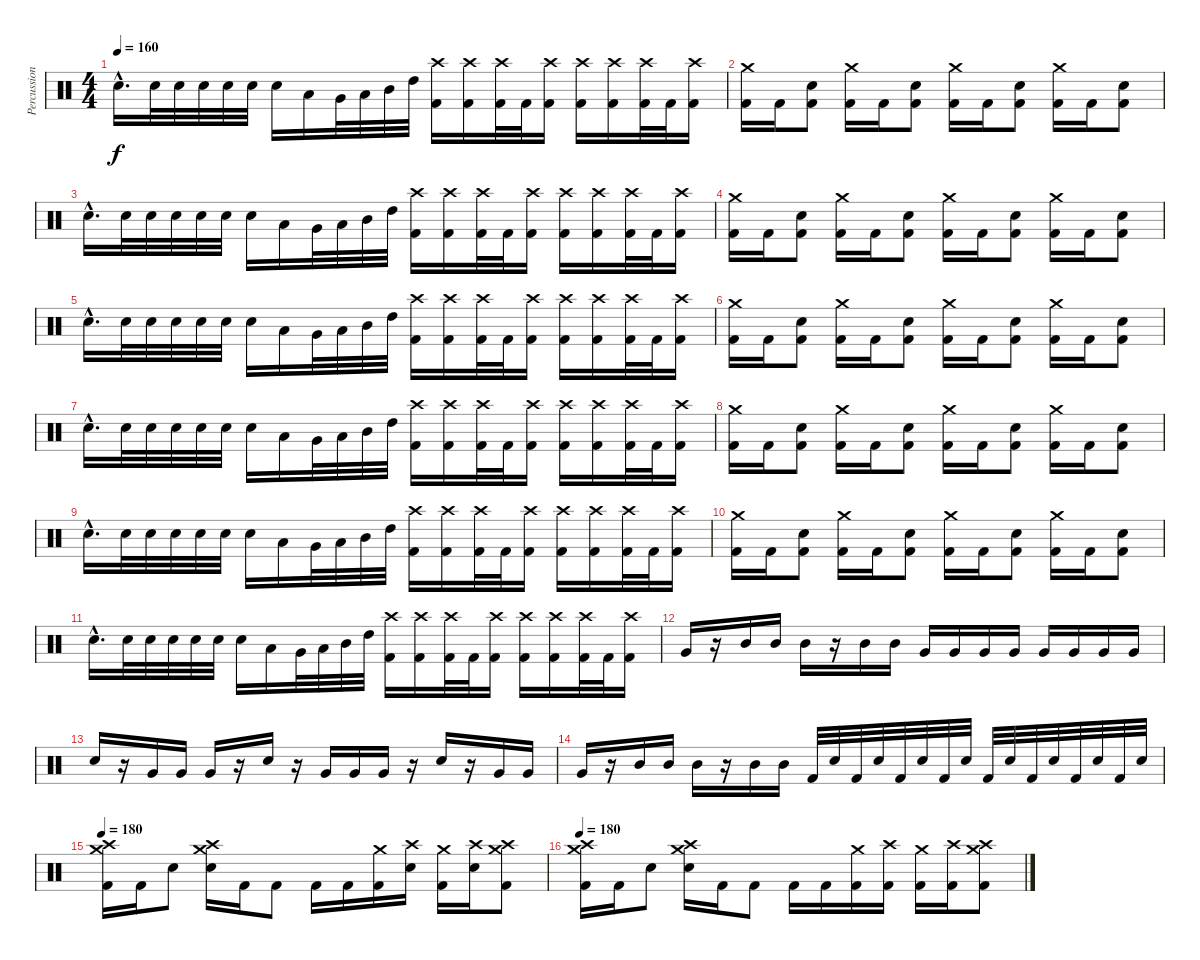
\track ("Percussion" "Percussion") {instrument percussion}
\staff {score}
\articulation defaults
\ts (4 4)
\tempo 160
\clef neutral
\ks c "Snare (hit) 2"{hac}.16{d dy f} "Snare (hit) 2".32 "Snare (hit) 2".32 "Snare (hit) 2".32 "Snare (hit) 2".32 "Snare (hit) 2".32 "Snare (hit) 2".16 "Low Floor Tom (hit)".16 "Very Low Tom (hit)".32 "Low Tom (hit)".32 "Mid Tom (hit)".32 "High Tom (hit)".32
("Crash high (hit)" "Kick (hit) 2").16 ("Crash high (hit)" "Kick (hit) 2").16 ("Crash high (hit)" "Kick (hit) 2").32 "Kick (hit) 2".32 ("Crash high (hit)" "Kick (hit) 2").16 ("Crash high (hit)" "Kick (hit) 2").16 ("Crash high (hit)" "Kick (hit) 2").16 ("Crash high (hit)" "Kick (hit) 2").32 "Kick (hit) 2".32 ("Crash high (hit)" "Kick (hit) 2").16 |
("Crash medium (hit)" "Kick (hit) 2").16 "Kick (hit) 2".16 ("Snare (hit) 2" "Kick (hit) 2").8 ("Crash medium (hit)" "Kick (hit) 2").16 "Kick (hit) 2".16 ("Snare (hit) 2" "Kick (hit) 2").8 ("Crash medium (hit)" "Kick (hit) 2").16 "Kick (hit) 2".16 ("Snare (hit) 2" "Kick (hit) 2").8 ("Crash medium (hit)" "Kick (hit) 2").16 "Kick (hit) 2".16 ("Snare (hit) 2" "Kick (hit) 2").8 |
"Snare (hit) 2"{hac}.16{d} "Snare (hit) 2".32 "Snare (hit) 2".32 "Snare (hit) 2".32 "Snare (hit) 2".32 "Snare (hit) 2".32 "Snare (hit) 2".16 "Low Floor Tom (hit)".16 "Very Low Tom (hit)".32 "Low Tom (hit)".32 "Mid Tom (hit)".32 "High Tom (hit)".32 ("Crash high (hit)" "Kick (hit) 2").16 ("Crash high (hit)" "Kick (hit) 2").16 ("Crash high (hit)" "Kick (hit) 2").32 "Kick (hit) 2".32 ("Crash high (hit)" "Kick (hit) 2").16 ("Crash high (hit)" "Kick (hit) 2").16 ("Crash high (hit)" "Kick (hit) 2").16 ("Crash high (hit)" "Kick (hit) 2").32 "Kick (hit) 2".32 ("Crash high (hit)" "Kick (hit) 2").16 |
("Crash medium (hit)" "Kick (hit) 2").16 "Kick (hit) 2".16 ("Snare (hit) 2" "Kick (hit) 2").8 ("Crash medium (hit)" "Kick (hit) 2").16 "Kick (hit) 2".16 ("Snare (hit) 2" "Kick (hit) 2").8 ("Crash medium (hit)" "Kick (hit) 2").16 "Kick (hit) 2".16 ("Snare (hit) 2" "Kick (hit) 2").8 ("Crash medium (hit)" "Kick (hit) 2").16 "Kick (hit) 2".16 ("Snare (hit) 2" "Kick (hit) 2").8 |
"Snare (hit) 2"{hac}.16{d} "Snare (hit) 2".32 "Snare (hit) 2".32 "Snare (hit) 2".32 "Snare (hit) 2".32 "Snare (hit) 2".32 "Snare (hit) 2".16 "Low Floor Tom (hit)".16 "Very Low Tom (hit)".32 "Low Tom (hit)".32 "Mid Tom (hit)".32 "High Tom (hit)".32 ("Crash high (hit)" "Kick (hit) 2").16 ("Crash high (hit)" "Kick (hit) 2").16 ("Crash high (hit)" "Kick (hit) 2").32 "Kick (hit) 2".32 ("Crash high (hit)" "Kick (hit) 2").16 ("Crash high (hit)" "Kick (hit) 2").16 ("Crash high (hit)" "Kick (hit) 2").16 ("Crash high (hit)" "Kick (hit) 2").32 "Kick (hit) 2".32 ("Crash high (hit)" "Kick (hit) 2").16 |
("Crash medium (hit)" "Kick (hit) 2").16 "Kick (hit) 2".16 ("Snare (hit) 2" "Kick (hit) 2").8 ("Crash medium (hit)" "Kick (hit) 2").16 "Kick (hit) 2".16 ("Snare (hit) 2" "Kick (hit) 2").8 ("Crash medium (hit)" "Kick (hit) 2").16 "Kick (hit) 2".16 ("Snare (hit) 2" "Kick (hit) 2").8 ("Crash medium (hit)" "Kick (hit) 2").16 "Kick (hit) 2".16 ("Snare (hit) 2" "Kick (hit) 2").8 |
"Snare (hit) 2"{hac}.16{d} "Snare (hit) 2".32 "Snare (hit) 2".32 "Snare (hit) 2".32 "Snare (hit) 2".32 "Snare (hit) 2".32 "Snare (hit) 2".16 "Low Floor Tom (hit)".16 "Very Low Tom (hit)".32 "Low Tom (hit)".32 "Mid Tom (hit)".32 "High Tom (hit)".32 ("Crash high (hit)" "Kick (hit) 2").16 ("Crash high (hit)" "Kick (hit) 2").16 ("Crash high (hit)" "Kick (hit) 2").32 "Kick (hit) 2".32 ("Crash high (hit)" "Kick (hit) 2").16 ("Crash high (hit)" "Kick (hit) 2").16 ("Crash high (hit)" "Kick (hit) 2").16 ("Crash high (hit)" "Kick (hit) 2").32 "Kick (hit) 2".32 ("Crash high (hit)" "Kick (hit) 2").16 |
("Crash medium (hit)" "Kick (hit) 2").16 "Kick (hit) 2".16 ("Snare (hit) 2" "Kick (hit) 2").8 ("Crash medium (hit)" "Kick (hit) 2").16 "Kick (hit) 2".16 ("Snare (hit) 2" "Kick (hit) 2").8 ("Crash medium (hit)" "Kick (hit) 2").16 "Kick (hit) 2".16 ("Snare (hit) 2" "Kick (hit) 2").8 ("Crash medium (hit)" "Kick (hit) 2").16 "Kick (hit) 2".16 ("Snare (hit) 2" "Kick (hit) 2").8 |
"Snare (hit) 2"{hac}.16{d} "Snare (hit) 2".32 "Snare (hit) 2".32 "Snare (hit) 2".32 "Snare (hit) 2".32 "Snare (hit) 2".32 "Snare (hit) 2".16 "Low Floor Tom (hit)".16 "Very Low Tom (hit)".32 "Low Tom (hit)".32 "Mid Tom (hit)".32 "High Tom (hit)".32 ("Crash high (hit)" "Kick (hit) 2").16 ("Crash high (hit)" "Kick (hit) 2").16 ("Crash high (hit)" "Kick (hit) 2").32 "Kick (hit) 2".32 ("Crash high (hit)" "Kick (hit) 2").16 ("Crash high (hit)" "Kick (hit) 2").16 ("Crash high (hit)" "Kick (hit) 2").16 ("Crash high (hit)" "Kick (hit) 2").32 "Kick (hit) 2".32 ("Crash high (hit)" "Kick (hit) 2").16 |
("Crash medium (hit)" "Kick (hit) 2").16 "Kick (hit) 2".16 ("Snare (hit) 2" "Kick (hit) 2").8 ("Crash medium (hit)" "Kick (hit) 2").16 "Kick (hit) 2".16 ("Snare (hit) 2" "Kick (hit) 2").8 ("Crash medium (hit)" "Kick (hit) 2").16 "Kick (hit) 2".16 ("Snare (hit) 2" "Kick (hit) 2").8 ("Crash medium (hit)" "Kick (hit) 2").16 "Kick (hit) 2".16 ("Snare (hit) 2" "Kick (hit) 2").8 |
"Snare (hit) 2"{hac}.16{d} "Snare (hit) 2".32 "Snare (hit) 2".32 "Snare (hit) 2".32 "Snare (hit) 2".32 "Snare (hit) 2".32 "Snare (hit) 2".16 "Low Floor Tom (hit)".16 "Very Low Tom (hit)".32 "Low Tom (hit)".32 "Mid Tom (hit)".32 "High Tom (hit)".32 ("Crash high (hit)" "Kick (hit) 2").16 ("Crash high (hit)" "Kick (hit) 2").16 ("Crash high (hit)" "Kick (hit) 2").32 "Kick (hit) 2".32 ("Crash high (hit)" "Kick (hit) 2").16 ("Crash high (hit)" "Kick (hit) 2").16 ("Crash high (hit)" "Kick (hit) 2").16 ("Crash high (hit)" "Kick (hit) 2").32 "Kick (hit) 2".32 ("Crash high (hit)" "Kick (hit) 2").16 |
"Very Low Tom (hit)".16 r.16 "Mid Tom (hit)".16 "Mid Tom (hit)".16 "Mid Tom (hit)".16 r.16 "Mid Tom (hit)".16 "Mid Tom (hit)".16 "Very Low Tom (hit)".16 "Very Low Tom (hit)".16 "Very Low Tom (hit)".16 "Very Low Tom (hit)".16 "Very Low Tom (hit)".16 "Very Low Tom (hit)".16 "Very Low Tom (hit)".16 "Very Low Tom (hit)".16 |
"Snare (hit) 2".16 r.16 "Very Low Tom (hit)".16 "Very Low Tom (hit)".16 "Very Low Tom (hit)".16 r.16 "Snare (hit) 2".16 r.16 "Very Low Tom (hit)".16 "Very Low Tom (hit)".16 "Very Low Tom (hit)".16 r.16 "Snare (hit) 2".16 r.16 "Very Low Tom (hit)".16 "Very Low Tom (hit)".16 |
"Very Low Tom (hit)".16 r.16 "Mid Tom (hit)".16 "Mid Tom (hit)".16 "Mid Tom (hit)".16 r.16 "Mid Tom (hit)".16 "Mid Tom (hit)".16 "Kick (hit) 2".32 "Snare (hit) 2".32 "Kick (hit) 2".32 "Snare (hit) 2".32 "Kick (hit) 2".32 "Snare (hit) 2".32 "Kick (hit) 2".32 "Snare (hit) 2".32 "Kick (hit) 2".32 "Snare (hit) 2".32 "Kick (hit) 2".32 "Snare (hit) 2".32 "Kick (hit) 2".32 "Snare (hit) 2".32 "Kick (hit) 2".32 "Snare (hit) 2".32 |
\tempo 180
("Crash high (hit)" "Crash medium (hit)" "Kick (hit) 2").16 "Kick (hit) 2".16 "Snare (hit) 2".8 ("Crash high (hit)" "Crash medium (hit)" "Snare (hit) 2").16 "Kick (hit) 2".16 "Kick (hit) 2".8 "Kick (hit) 2".16 "Kick (hit) 2".16 ("Crash medium (hit)" "Kick (hit) 2").16 ("Crash high (hit)" "Snare (hit) 2").16 ("Crash medium (hit)" "Kick (hit) 2").16 ("Crash high (hit)" "Snare (hit) 2").16 ("Crash medium (hit)" "Crash high (hit)" "Kick (hit) 2").8 |
\tempo 180
("Crash high (hit)" "Crash medium (hit)" "Kick (hit) 2").16 "Kick (hit) 2".16 "Snare (hit) 2".8 ("Crash high (hit)" "Crash medium (hit)" "Snare (hit) 2").16 "Kick (hit) 2".16 "Kick (hit) 2".8 "Kick (hit) 2".16 "Kick (hit) 2".16 ("Crash medium (hit)" "Kick (hit) 2").16 ("Crash high (hit)" "Kick (hit) 2").16 ("Crash medium (hit)" "Kick (hit) 2").16 ("Crash high (hit)" "Kick (hit) 2").16 ("Crash medium (hit)" "Crash high (hit)" "Kick (hit) 2").8
